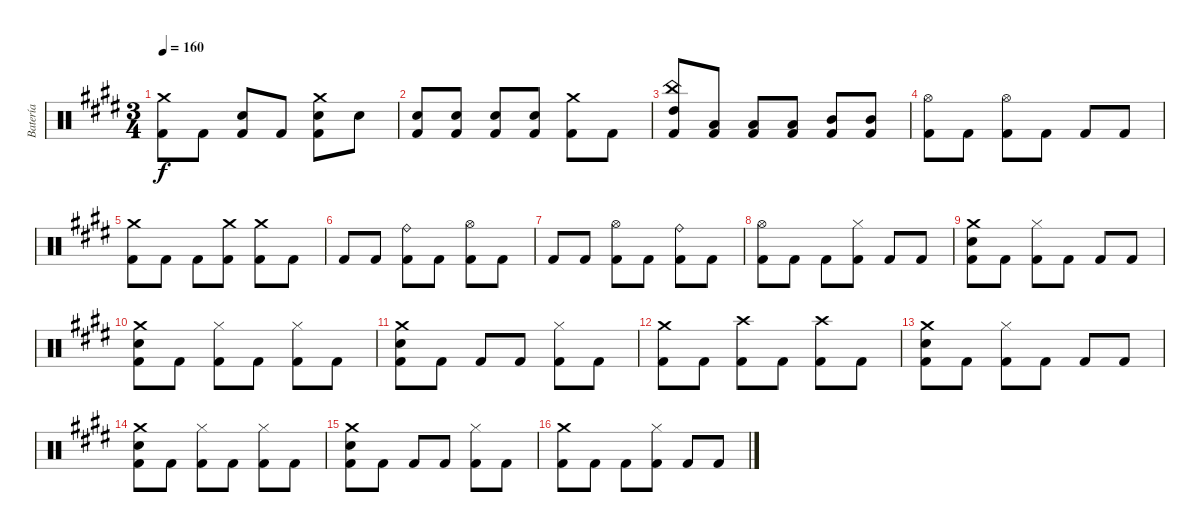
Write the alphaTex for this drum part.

\track ("Batería" "Batería") {instrument percussion}
\staff {score}
\articulation defaults
\ts (3 4)
\tempo 160
\clef neutral
\ks c#minor
("Crash medium (hit)" "Kick (hit) 2").8{dy f} "Kick (hit) 2".8 ("Snare (hit) 2" "Kick (hit) 2").8 "Kick (hit) 2".8 ("Crash medium (hit)" "Snare (hit) 2" "Kick (hit) 2").8 "Snare (hit) 2".8 |
("Snare (hit) 2" "Kick (hit) 2").8 ("Snare (hit) 2" "Kick (hit) 2").8 ("Snare (hit) 2" "Kick (hit) 2").8 ("Snare (hit) 2" "Kick (hit) 2").8 ("Crash medium (hit)" "Kick (hit) 2").8 "Kick (hit) 2".8 |
("China (hit)" "High Tom (hit)" "Kick (hit) 2").8 ("Low Tom (hit)" "Kick (hit) 2").8 ("Low Tom (hit)" "Kick (hit) 2").8 ("Low Tom (hit)" "Kick (hit) 2").8 ("Mid Tom (hit)" "Kick (hit) 2").8 ("Mid Tom (hit)" "Kick (hit) 2").8 |
("Hi-Hat (open)" "Kick (hit) 2").8 "Kick (hit) 2".8 ("Hi-Hat (open)" "Kick (hit) 2").8 "Kick (hit) 2".8 "Kick (hit) 2".8 "Kick (hit) 2".8 |
("Crash medium (hit)" "Kick (hit) 2").8 "Kick (hit) 2".8 "Kick (hit) 2".8 ("Crash medium (hit)" "Kick (hit) 2").8 ("Crash medium (hit)" "Kick (hit) 2").8 "Kick (hit) 2".8 |
"Kick (hit) 2".8 "Kick (hit) 2".8 ("Ride (bell)" "Kick (hit) 2").8 "Kick (hit) 2".8 ("Hi-Hat (open)" "Kick (hit) 2").8 "Kick (hit) 2".8 |
"Kick (hit) 2".8 "Kick (hit) 2".8 ("Hi-Hat (open)" "Kick (hit) 2").8 "Kick (hit) 2".8 ("Ride (bell)" "Kick (hit) 2").8 "Kick (hit) 2".8 |
("Hi-Hat (open)" "Kick (hit) 2").8 "Kick (hit) 2".8 "Kick (hit) 2".8 ("Hi-Hat (closed)" "Kick (hit) 2").8 "Kick (hit) 2".8 "Kick (hit) 2".8 |
("Crash medium (hit)" "Snare (hit) 2" "Kick (hit) 2").8 "Kick (hit) 2".8 ("Hi-Hat (closed)" "Kick (hit) 2").8 "Kick (hit) 2".8 "Kick (hit) 2".8 "Kick (hit) 2".8 |
("Crash medium (hit)" "Snare (hit) 2" "Kick (hit) 2").8 "Kick (hit) 2".8 ("Hi-Hat (closed)" "Kick (hit) 2").8 "Kick (hit) 2".8 ("Hi-Hat (closed)" "Kick (hit) 2").8 "Kick (hit) 2".8 |
("Crash medium (hit)" "Snare (hit) 2" "Kick (hit) 2").8 "Kick (hit) 2".8 "Kick (hit) 2".8 "Kick (hit) 2".8 ("Hi-Hat (closed)" "Kick (hit) 2").8 "Kick (hit) 2".8 |
("Crash medium (hit)" "Kick (hit) 2").8 "Kick (hit) 2".8 ("Crash high (hit)" "Kick (hit) 2").8 "Kick (hit) 2".8 ("Crash high (hit)" "Kick (hit) 2").8 "Kick (hit) 2".8 |
("Crash medium (hit)" "Snare (hit) 2" "Kick (hit) 2").8 "Kick (hit) 2".8 ("Hi-Hat (closed)" "Kick (hit) 2").8 "Kick (hit) 2".8 "Kick (hit) 2".8 "Kick (hit) 2".8 |
("Crash medium (hit)" "Snare (hit) 2" "Kick (hit) 2").8 "Kick (hit) 2".8 ("Hi-Hat (closed)" "Kick (hit) 2").8 "Kick (hit) 2".8 ("Hi-Hat (closed)" "Kick (hit) 2").8 "Kick (hit) 2".8 |
("Crash medium (hit)" "Snare (hit) 2" "Kick (hit) 2").8 "Kick (hit) 2".8 "Kick (hit) 2".8 "Kick (hit) 2".8 ("Hi-Hat (closed)" "Kick (hit) 2").8 "Kick (hit) 2".8 |
("Crash medium (hit)" "Kick (hit) 2").8 "Kick (hit) 2".8 "Kick (hit) 2".8 ("Hi-Hat (closed)" "Kick (hit) 2").8 "Kick (hit) 2".8 "Kick (hit) 2".8
